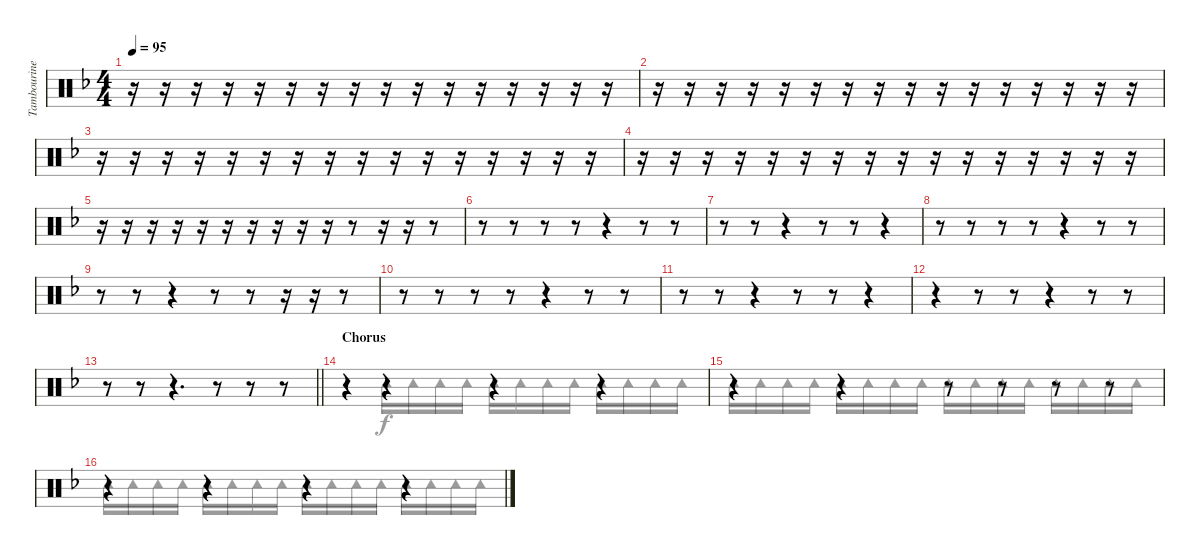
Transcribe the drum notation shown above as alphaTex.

\track ("Tambourine" "Tambourine") {instrument percussion}
\staff {score}
\articulation defaults
\voice
\ts (4 4)
\tempo 95
\clef neutral
\ks f
r.16{dy f} r.16 r.16 r.16 r.16 r.16 r.16 r.16 r.16 r.16 r.16 r.16 r.16 r.16 r.16 r.16 |
r.16 r.16 r.16 r.16 r.16 r.16 r.16 r.16 r.16 r.16 r.16 r.16 r.16 r.16 r.16 r.16 |
r.16 r.16 r.16 r.16 r.16 r.16 r.16 r.16 r.16 r.16 r.16 r.16 r.16 r.16 r.16 r.16 |
r.16 r.16 r.16 r.16 r.16 r.16 r.16 r.16 r.16 r.16 r.16 r.16 r.16 r.16 r.16 r.16 |
r.16 r.16 r.16 r.16 r.16 r.16 r.16 r.16 r.16 r.16 r.8 r.16 r.16 r.8 |
r.8 r.8 r.8 r.8 r.4 r.8 r.8 |
r.8 r.8 r.4 r.8 r.8 r.4 |
r.8 r.8 r.8 r.8 r.4 r.8 r.8 |
r.8 r.8 r.4 r.8 r.8 r.16 r.16 r.8 |
r.8 r.8 r.8 r.8 r.4 r.8 r.8 |
r.8 r.8 r.4 r.8 r.8 r.4 |
r.4 r.8 r.8 r.4 r.8 r.8 |
\barLineRight lightlight
r.8 r.8 r.4{d} r.8 r.8 r.8 |
\section ("" "Chorus")
r.4 r.4 r.4 r.4 |
r.4 r.4 r.8 r.8 r.8 r.8 |
r.4 r.4 r.4 r.4
\voice
\clef neutral
\ottava regular
\simile none
\ks f
|
|
|
|
|
|
|
|
|
|
|
|
\barLineRight lightlight
|
r.4 "Tambourine (hit)".16 "Tambourine (hit)".16 "Tambourine (hit)".16 "Tambourine (hit)".16 "Tambourine (hit)".16 "Tambourine (hit)".16 "Tambourine (hit)".16 "Tambourine (hit)".16 "Tambourine (hit)".16 "Tambourine (hit)".16 "Tambourine (hit)".16 "Tambourine (hit)".16 |
"Tambourine (hit)".16 "Tambourine (hit)".16 "Tambourine (hit)".16 "Tambourine (hit)".16 "Tambourine (hit)".16 "Tambourine (hit)".16 "Tambourine (hit)".16 "Tambourine (hit)".16 "Tambourine (hit)".16 "Tambourine (hit)".16 "Tambourine (hit)".16 "Tambourine (hit)".16 "Tambourine (hit)".16 "Tambourine (hit)".16 "Tambourine (hit)".16 "Tambourine (hit)".16 |
"Tambourine (hit)".16 "Tambourine (hit)".16 "Tambourine (hit)".16 "Tambourine (hit)".16 "Tambourine (hit)".16 "Tambourine (hit)".16 "Tambourine (hit)".16 "Tambourine (hit)".16 "Tambourine (hit)".16 "Tambourine (hit)".16 "Tambourine (hit)".16 "Tambourine (hit)".16 "Tambourine (hit)".16 "Tambourine (hit)".16 "Tambourine (hit)".16 "Tambourine (hit)".16
